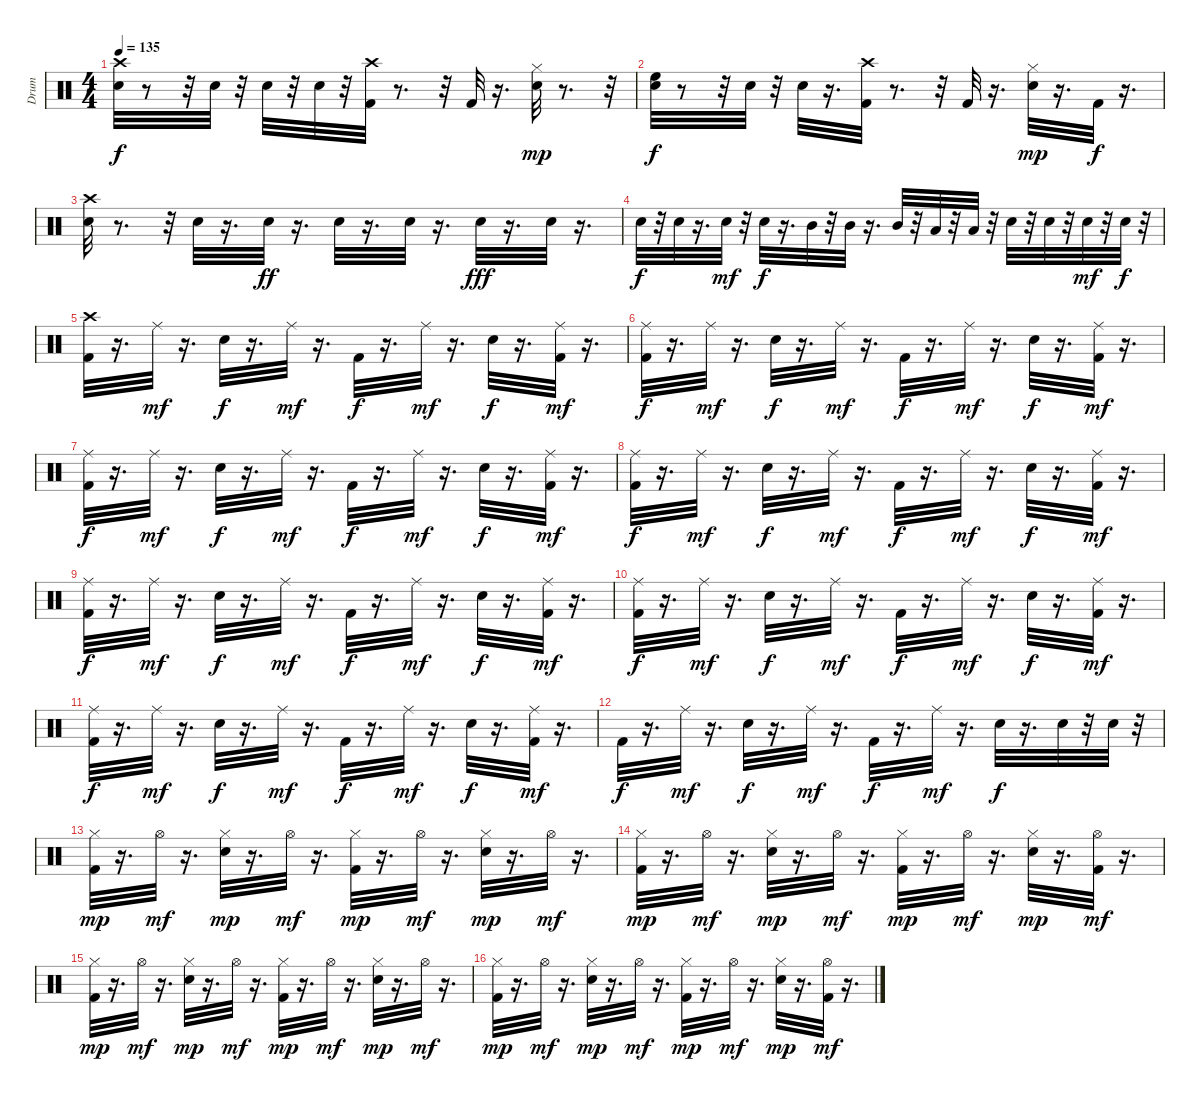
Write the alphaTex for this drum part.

\track ("Drum" "Drum") {instrument percussion}
\staff {score}
\articulation defaults
\ts (4 4)
\tempo 135
\clef neutral
\ks c
("Crash high (hit)" "Electric Snare (hit)").32{dy f} r.8 r.32 "Electric Snare (hit)".32 r.32 "Electric Snare (hit)".32 r.32 "Electric Snare (hit)".32 r.32 ("Crash high (hit)" "Kick (hit) 2").32 r.8{d} r.32 "Kick (hit) 2".32 r.16{d} ("Electric Snare (hit)" "Hi-Hat (closed)").32{dy mp} r.8{d} r.32 |
("Electric Snare (hit)" "High Floor Tom (hit)").32{dy f} r.8 r.32 "Electric Snare (hit)".32 r.32 "Electric Snare (hit)".32 r.16{d} ("Crash high (hit)" "Kick (hit) 2").32 r.8{d} r.32 "Kick (hit) 2".32 r.16{d} ("Hi-Hat (closed)" "Electric Snare (hit)").32{dy mp} r.16{d} "Kick (hit) 2".32{dy f} r.16{d} |
("Electric Snare (hit)" "Crash high (hit)").32 r.8{d} r.32 "Electric Snare (hit)".32 r.16{d} "Electric Snare (hit)".32{dy ff} r.16{d} "Electric Snare (hit)".32 r.16{d} "Electric Snare (hit)".32 r.16{d} "Electric Snare (hit)".32{dy fff} r.16{d} "Electric Snare (hit)".32 r.16{d} |
"Electric Snare (hit)".32{dy f} r.32 "Electric Snare (hit)".32 r.16{d} "Electric Snare (hit)".32{dy mf} r.32 "Electric Snare (hit)".32{dy f} r.16{d} "Mid Tom (hit)".32 r.32 "Mid Tom (hit)".32 r.16{d} "Mid Tom (hit)".32 r.32 "Low Tom (hit)".32 r.32 "Low Tom (hit)".32 r.32 "Electric Snare (hit)".32 r.32 "Electric Snare (hit)".32 r.32 "Electric Snare (hit)".32{dy mf} r.32 "Electric Snare (hit)".32{dy f} r.32 |
("Crash high (hit)" "Kick (hit) 2").32 r.16{d} "Ride (middle)".32{dy mf} r.16{d} "Electric Snare (hit)".32{dy f} r.16{d} "Ride (middle)".32{dy mf} r.16{d} "Kick (hit) 2".32{dy f} r.16{d} "Ride (middle)".32{dy mf} r.16{d} "Electric Snare (hit)".32{dy f} r.16{d} ("Ride (middle)" "Kick (hit) 2").32{dy mf} r.16{d} |
("Ride (middle)" "Kick (hit) 2").32{dy f} r.16{d} "Ride (middle)".32{dy mf} r.16{d} "Electric Snare (hit)".32{dy f} r.16{d} "Ride (middle)".32{dy mf} r.16{d} "Kick (hit) 2".32{dy f} r.16{d} "Ride (middle)".32{dy mf} r.16{d} "Electric Snare (hit)".32{dy f} r.16{d} ("Ride (middle)" "Kick (hit) 2").32{dy mf} r.16{d} |
("Ride (middle)" "Kick (hit) 2").32{dy f} r.16{d} "Ride (middle)".32{dy mf} r.16{d} "Electric Snare (hit)".32{dy f} r.16{d} "Ride (middle)".32{dy mf} r.16{d} "Kick (hit) 2".32{dy f} r.16{d} "Ride (middle)".32{dy mf} r.16{d} "Electric Snare (hit)".32{dy f} r.16{d} ("Ride (middle)" "Kick (hit) 2").32{dy mf} r.16{d} |
("Ride (middle)" "Kick (hit) 2").32{dy f} r.16{d} "Ride (middle)".32{dy mf} r.16{d} "Electric Snare (hit)".32{dy f} r.16{d} "Ride (middle)".32{dy mf} r.16{d} "Kick (hit) 2".32{dy f} r.16{d} "Ride (middle)".32{dy mf} r.16{d} "Electric Snare (hit)".32{dy f} r.16{d} ("Ride (middle)" "Kick (hit) 2").32{dy mf} r.16{d} |
("Ride (middle)" "Kick (hit) 2").32{dy f} r.16{d} "Ride (middle)".32{dy mf} r.16{d} "Electric Snare (hit)".32{dy f} r.16{d} "Ride (middle)".32{dy mf} r.16{d} "Kick (hit) 2".32{dy f} r.16{d} "Ride (middle)".32{dy mf} r.16{d} "Electric Snare (hit)".32{dy f} r.16{d} ("Ride (middle)" "Kick (hit) 2").32{dy mf} r.16{d} |
("Ride (middle)" "Kick (hit) 2").32{dy f} r.16{d} "Ride (middle)".32{dy mf} r.16{d} "Electric Snare (hit)".32{dy f} r.16{d} "Ride (middle)".32{dy mf} r.16{d} "Kick (hit) 2".32{dy f} r.16{d} "Ride (middle)".32{dy mf} r.16{d} "Electric Snare (hit)".32{dy f} r.16{d} ("Ride (middle)" "Kick (hit) 2").32{dy mf} r.16{d} |
("Ride (middle)" "Kick (hit) 2").32{dy f} r.16{d} "Ride (middle)".32{dy mf} r.16{d} "Electric Snare (hit)".32{dy f} r.16{d} "Ride (middle)".32{dy mf} r.16{d} "Kick (hit) 2".32{dy f} r.16{d} "Ride (middle)".32{dy mf} r.16{d} "Electric Snare (hit)".32{dy f} r.16{d} ("Ride (middle)" "Kick (hit) 2").32{dy mf} r.16{d} |
"Kick (hit) 2".32{dy f} r.16{d} "Ride (middle)".32{dy mf} r.16{d} "Electric Snare (hit)".32{dy f} r.16{d} "Ride (middle)".32{dy mf} r.16{d} "Kick (hit) 2".32{dy f} r.16{d} "Ride (middle)".32{dy mf} r.16{d} "Electric Snare (hit)".32{dy f} r.16{d} "Electric Snare (hit)".32 r.32 "Electric Snare (hit)".32 r.32 |
("Hi-Hat (closed)" "Kick (hit) 2").32{dy mp} r.16{d} "Hi-Hat (open)".32{dy mf} r.16{d} ("Hi-Hat (closed)" "Electric Snare (hit)").32{dy mp} r.16{d} "Hi-Hat (open)".32{dy mf} r.16{d} ("Hi-Hat (closed)" "Kick (hit) 2").32{dy mp} r.16{d} "Hi-Hat (open)".32{dy mf} r.16{d} ("Hi-Hat (closed)" "Electric Snare (hit)").32{dy mp} r.16{d} "Hi-Hat (open)".32{dy mf} r.16{d} |
("Hi-Hat (closed)" "Kick (hit) 2").32{dy mp} r.16{d} "Hi-Hat (open)".32{dy mf} r.16{d} ("Hi-Hat (closed)" "Electric Snare (hit)").32{dy mp} r.16{d} "Hi-Hat (open)".32{dy mf} r.16{d} ("Hi-Hat (closed)" "Kick (hit) 2").32{dy mp} r.16{d} "Hi-Hat (open)".32{dy mf} r.16{d} ("Hi-Hat (closed)" "Electric Snare (hit)").32{dy mp} r.16{d} ("Hi-Hat (open)" "Kick (hit) 2").32{dy mf} r.16{d} |
("Hi-Hat (closed)" "Kick (hit) 2").32{dy mp} r.16{d} "Hi-Hat (open)".32{dy mf} r.16{d} ("Hi-Hat (closed)" "Electric Snare (hit)").32{dy mp} r.16{d} "Hi-Hat (open)".32{dy mf} r.16{d} ("Hi-Hat (closed)" "Kick (hit) 2").32{dy mp} r.16{d} "Hi-Hat (open)".32{dy mf} r.16{d} ("Hi-Hat (closed)" "Electric Snare (hit)").32{dy mp} r.16{d} "Hi-Hat (open)".32{dy mf} r.16{d} |
("Hi-Hat (closed)" "Kick (hit) 2").32{dy mp} r.16{d} "Hi-Hat (open)".32{dy mf} r.16{d} ("Hi-Hat (closed)" "Electric Snare (hit)").32{dy mp} r.16{d} "Hi-Hat (open)".32{dy mf} r.16{d} ("Hi-Hat (closed)" "Kick (hit) 2").32{dy mp} r.16{d} "Hi-Hat (open)".32{dy mf} r.16{d} ("Hi-Hat (closed)" "Electric Snare (hit)").32{dy mp} r.16{d} ("Hi-Hat (open)" "Kick (hit) 2").32{dy mf} r.16{d}
